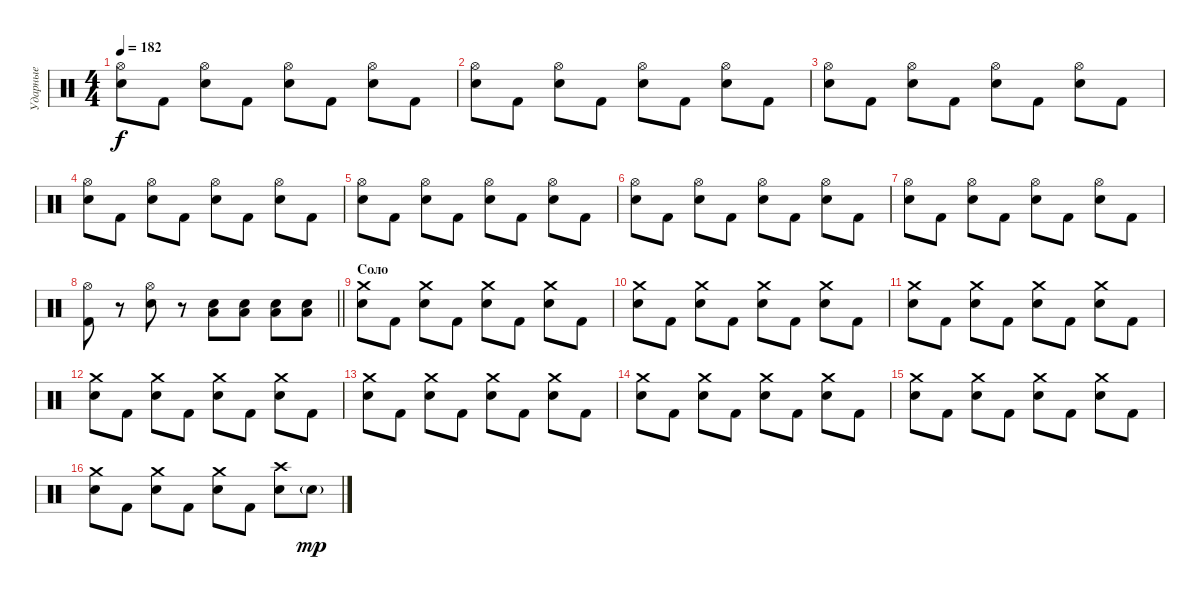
\track ("Ударные" "Ударные") {instrument percussion}
\staff {score}
\articulation defaults
\ts (4 4)
\tempo 182
\clef neutral
\ks c
("Hi-Hat (open)" "Snare (hit) 2").8{dy f} "Kick (hit) 2".8 ("Hi-Hat (open)" "Snare (hit) 2").8 "Kick (hit) 2".8 ("Hi-Hat (open)" "Snare (hit) 2").8 "Kick (hit) 2".8 ("Hi-Hat (open)" "Snare (hit) 2").8 "Kick (hit) 2".8 |
("Hi-Hat (open)" "Snare (hit) 2").8 "Kick (hit) 2".8 ("Hi-Hat (open)" "Snare (hit) 2").8 "Kick (hit) 2".8 ("Hi-Hat (open)" "Snare (hit) 2").8 "Kick (hit) 2".8 ("Hi-Hat (open)" "Snare (hit) 2").8 "Kick (hit) 2".8 |
("Hi-Hat (open)" "Snare (hit) 2").8 "Kick (hit) 2".8 ("Hi-Hat (open)" "Snare (hit) 2").8 "Kick (hit) 2".8 ("Hi-Hat (open)" "Snare (hit) 2").8 "Kick (hit) 2".8 ("Hi-Hat (open)" "Snare (hit) 2").8 "Kick (hit) 2".8 |
("Hi-Hat (open)" "Snare (hit) 2").8 "Kick (hit) 2".8 ("Hi-Hat (open)" "Snare (hit) 2").8 "Kick (hit) 2".8 ("Hi-Hat (open)" "Snare (hit) 2").8 "Kick (hit) 2".8 ("Hi-Hat (open)" "Snare (hit) 2").8 "Kick (hit) 2".8 |
("Hi-Hat (open)" "Snare (hit) 2").8 "Kick (hit) 2".8 ("Hi-Hat (open)" "Snare (hit) 2").8 "Kick (hit) 2".8 ("Hi-Hat (open)" "Snare (hit) 2").8 "Kick (hit) 2".8 ("Hi-Hat (open)" "Snare (hit) 2").8 "Kick (hit) 2".8 |
("Hi-Hat (open)" "Snare (hit) 2").8 "Kick (hit) 2".8 ("Hi-Hat (open)" "Snare (hit) 2").8 "Kick (hit) 2".8 ("Hi-Hat (open)" "Snare (hit) 2").8 "Kick (hit) 2".8 ("Hi-Hat (open)" "Snare (hit) 2").8 "Kick (hit) 2".8 |
("Hi-Hat (open)" "Snare (hit) 2").8 "Kick (hit) 2".8 ("Hi-Hat (open)" "Snare (hit) 2").8 "Kick (hit) 2".8 ("Hi-Hat (open)" "Snare (hit) 2").8 "Kick (hit) 2".8 ("Hi-Hat (open)" "Snare (hit) 2").8 "Kick (hit) 2".8 |
\barLineRight lightlight
("Hi-Hat (open)" "Kick (hit) 2").8 r.8 ("Hi-Hat (open)" "Snare (hit) 2").8 r.8 ("Low Floor Tom (hit)" "Snare (hit) 2").8 ("Low Floor Tom (hit)" "Snare (hit) 2").8 ("Low Floor Tom (hit)" "Snare (hit) 2").8 ("Low Floor Tom (hit)" "Snare (hit) 2").8 |
\section ("" "Соло")
("Crash medium (hit)" "Snare (hit) 2").8 "Kick (hit) 2".8 ("Crash medium (hit)" "Snare (hit) 2").8 "Kick (hit) 2".8 ("Crash medium (hit)" "Snare (hit) 2").8 "Kick (hit) 2".8 ("Crash medium (hit)" "Snare (hit) 2").8 "Kick (hit) 2".8 |
("Crash medium (hit)" "Snare (hit) 2").8 "Kick (hit) 2".8 ("Crash medium (hit)" "Snare (hit) 2").8 "Kick (hit) 2".8 ("Crash medium (hit)" "Snare (hit) 2").8 "Kick (hit) 2".8 ("Crash medium (hit)" "Snare (hit) 2").8 "Kick (hit) 2".8 |
("Crash medium (hit)" "Snare (hit) 2").8 "Kick (hit) 2".8 ("Crash medium (hit)" "Snare (hit) 2").8 "Kick (hit) 2".8 ("Crash medium (hit)" "Snare (hit) 2").8 "Kick (hit) 2".8 ("Crash medium (hit)" "Snare (hit) 2").8 "Kick (hit) 2".8 |
("Crash medium (hit)" "Snare (hit) 2").8 "Kick (hit) 2".8 ("Crash medium (hit)" "Snare (hit) 2").8 "Kick (hit) 2".8 ("Crash medium (hit)" "Snare (hit) 2").8 "Kick (hit) 2".8 ("Crash medium (hit)" "Snare (hit) 2").8 "Kick (hit) 2".8 |
("Crash medium (hit)" "Snare (hit) 2").8 "Kick (hit) 2".8 ("Crash medium (hit)" "Snare (hit) 2").8 "Kick (hit) 2".8 ("Crash medium (hit)" "Snare (hit) 2").8 "Kick (hit) 2".8 ("Crash medium (hit)" "Snare (hit) 2").8 "Kick (hit) 2".8 |
("Crash medium (hit)" "Snare (hit) 2").8 "Kick (hit) 2".8 ("Crash medium (hit)" "Snare (hit) 2").8 "Kick (hit) 2".8 ("Crash medium (hit)" "Snare (hit) 2").8 "Kick (hit) 2".8 ("Crash medium (hit)" "Snare (hit) 2").8 "Kick (hit) 2".8 |
("Crash medium (hit)" "Snare (hit) 2").8 "Kick (hit) 2".8 ("Crash medium (hit)" "Snare (hit) 2").8 "Kick (hit) 2".8 ("Crash medium (hit)" "Snare (hit) 2").8 "Kick (hit) 2".8 ("Crash medium (hit)" "Snare (hit) 2").8 "Kick (hit) 2".8 |
("Crash medium (hit)" "Snare (hit) 2").8 "Kick (hit) 2".8 ("Crash medium (hit)" "Snare (hit) 2").8 "Kick (hit) 2".8 ("Crash medium (hit)" "Snare (hit) 2").8 "Kick (hit) 2".8 ("Crash high (hit)" "Snare (hit) 2").8 "Snare (hit) 2"{g}.8{dy mp}
